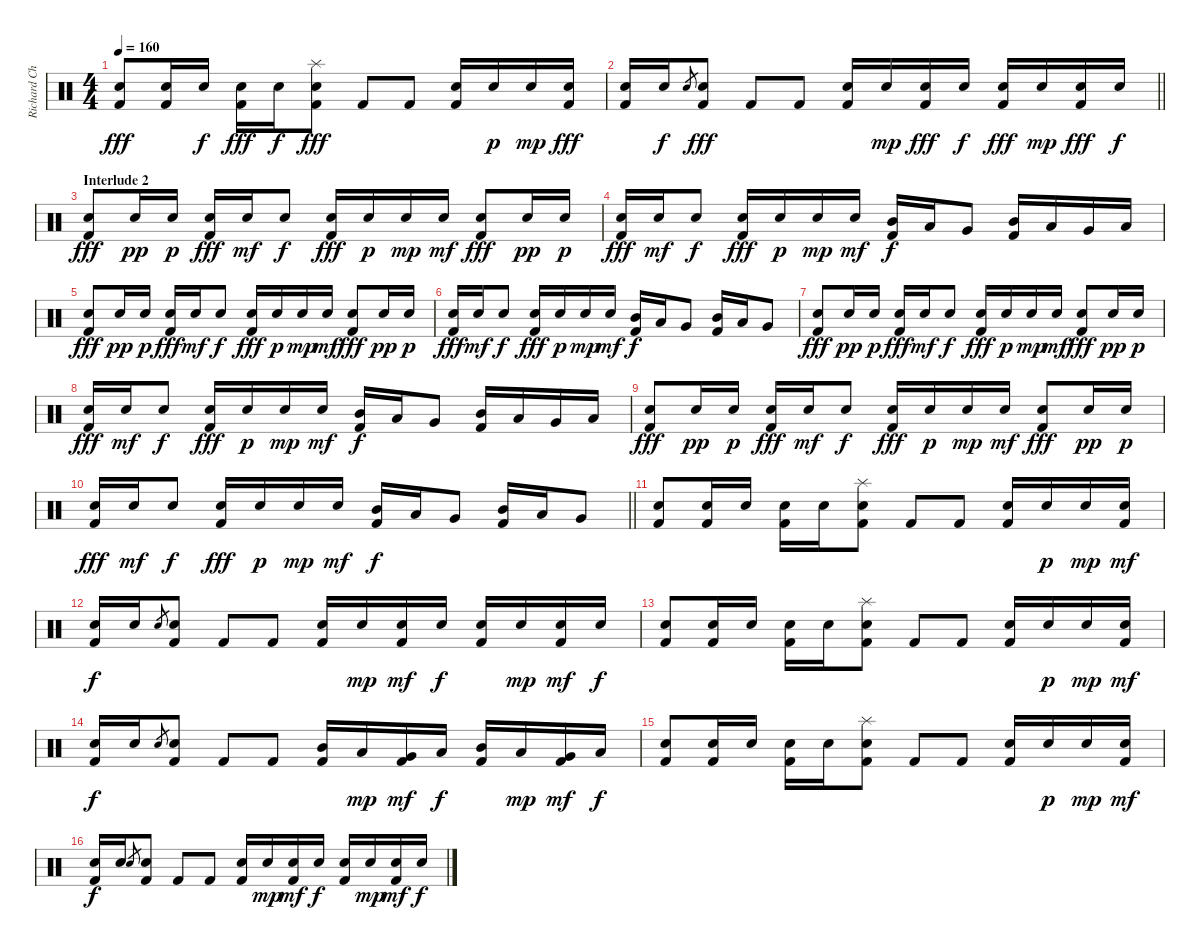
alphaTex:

\track ("Richard Christy" "Richard Ch") {instrument percussion}
\staff {score}
\articulation defaults
\ts (4 4)
\tempo 160
\clef neutral
\ks c
("Snare (hit) 2" "Kick (hit) 2").8{dy fff} ("Snare (hit) 2" "Kick (hit) 2").16 "Snare (hit) 2".16{dy f} ("Snare (hit) 2" "Kick (hit) 2").16{dy fff} "Snare (hit) 2".16{dy f} ("Splash (hit)" "Snare (hit) 2" "Kick (hit) 2").8{dy fff} "Kick (hit) 2".8 "Kick (hit) 2".8 ("Snare (hit) 2" "Kick (hit) 2").16 "Snare (hit) 2".16{dy p} "Snare (hit) 2".16{dy mp} ("Snare (hit) 2" "Kick (hit) 2").16{dy fff} |
\barLineRight lightlight
("Snare (hit) 2" "Kick (hit) 2").16 "Snare (hit) 2".16{dy f} "Snare (hit) 2".8{gr} ("Snare (hit) 2" "Kick (hit) 2").8{dy fff} "Kick (hit) 2".8 "Kick (hit) 2".8 ("Snare (hit) 2" "Kick (hit) 2").16 "Snare (hit) 2".16{dy mp} ("Snare (hit) 2" "Kick (hit) 2").16{dy fff} "Snare (hit) 2".16{dy f} ("Snare (hit) 2" "Kick (hit) 2").16{dy fff} "Snare (hit) 2".16{dy mp} ("Snare (hit) 2" "Kick (hit) 2").16{dy fff} "Snare (hit) 2".16{dy f} |
\section ("" "Interlude 2")
("Snare (hit) 2" "Kick (hit) 2").8{dy fff} "Snare (hit) 2".16{dy pp} "Snare (hit) 2".16{dy p} ("Snare (hit) 2" "Kick (hit) 2").16{dy fff} "Snare (hit) 2".16{dy mf} "Snare (hit) 2".8{dy f} ("Snare (hit) 2" "Kick (hit) 2").16{dy fff} "Snare (hit) 2".16{dy p} "Snare (hit) 2".16{dy mp} "Snare (hit) 2".16{dy mf} ("Snare (hit) 2" "Kick (hit) 2").8{dy fff} "Snare (hit) 2".16{dy pp} "Snare (hit) 2".16{dy p} |
("Snare (hit) 2" "Kick (hit) 2").16{dy fff} "Snare (hit) 2".16{dy mf} "Snare (hit) 2".8{dy f} ("Snare (hit) 2" "Kick (hit) 2").16{dy fff} "Snare (hit) 2".16{dy p} "Snare (hit) 2".16{dy mp} "Snare (hit) 2".16{dy mf} ("Mid Tom (hit)" "Kick (hit) 2").16{dy f} "Low Tom (hit)".16 "Very Low Tom (hit)".8 ("Mid Tom (hit)" "Kick (hit) 2").16 "Low Tom (hit)".16 "Very Low Tom (hit)".16 "Low Floor Tom (hit)".16 |
("Snare (hit) 2" "Kick (hit) 2").8{dy fff} "Snare (hit) 2".16{dy pp} "Snare (hit) 2".16{dy p} ("Snare (hit) 2" "Kick (hit) 2").16{dy fff} "Snare (hit) 2".16{dy mf} "Snare (hit) 2".8{dy f} ("Snare (hit) 2" "Kick (hit) 2").16{dy fff} "Snare (hit) 2".16{dy p} "Snare (hit) 2".16{dy mp} "Snare (hit) 2".16{dy mf} ("Snare (hit) 2" "Kick (hit) 2").8{dy fff} "Snare (hit) 2".16{dy pp} "Snare (hit) 2".16{dy p} |
("Snare (hit) 2" "Kick (hit) 2").16{dy fff} "Snare (hit) 2".16{dy mf} "Snare (hit) 2".8{dy f} ("Snare (hit) 2" "Kick (hit) 2").16{dy fff} "Snare (hit) 2".16{dy p} "Snare (hit) 2".16{dy mp} "Snare (hit) 2".16{dy mf} ("Mid Tom (hit)" "Kick (hit) 2").16{dy f} "Low Tom (hit)".16 "Very Low Tom (hit)".8 ("Mid Tom (hit)" "Kick (hit) 2").16 "Low Tom (hit)".16 "Very Low Tom (hit)".8 |
("Snare (hit) 2" "Kick (hit) 2").8{dy fff} "Snare (hit) 2".16{dy pp} "Snare (hit) 2".16{dy p} ("Snare (hit) 2" "Kick (hit) 2").16{dy fff} "Snare (hit) 2".16{dy mf} "Snare (hit) 2".8{dy f} ("Snare (hit) 2" "Kick (hit) 2").16{dy fff} "Snare (hit) 2".16{dy p} "Snare (hit) 2".16{dy mp} "Snare (hit) 2".16{dy mf} ("Snare (hit) 2" "Kick (hit) 2").8{dy fff} "Snare (hit) 2".16{dy pp} "Snare (hit) 2".16{dy p} |
("Snare (hit) 2" "Kick (hit) 2").16{dy fff} "Snare (hit) 2".16{dy mf} "Snare (hit) 2".8{dy f} ("Snare (hit) 2" "Kick (hit) 2").16{dy fff} "Snare (hit) 2".16{dy p} "Snare (hit) 2".16{dy mp} "Snare (hit) 2".16{dy mf} ("Mid Tom (hit)" "Kick (hit) 2").16{dy f} "Low Tom (hit)".16 "Very Low Tom (hit)".8 ("Mid Tom (hit)" "Kick (hit) 2").16 "Low Tom (hit)".16 "Very Low Tom (hit)".16 "Low Floor Tom (hit)".16 |
("Snare (hit) 2" "Kick (hit) 2").8{dy fff} "Snare (hit) 2".16{dy pp} "Snare (hit) 2".16{dy p} ("Snare (hit) 2" "Kick (hit) 2").16{dy fff} "Snare (hit) 2".16{dy mf} "Snare (hit) 2".8{dy f} ("Snare (hit) 2" "Kick (hit) 2").16{dy fff} "Snare (hit) 2".16{dy p} "Snare (hit) 2".16{dy mp} "Snare (hit) 2".16{dy mf} ("Snare (hit) 2" "Kick (hit) 2").8{dy fff} "Snare (hit) 2".16{dy pp} "Snare (hit) 2".16{dy p} |
\barLineRight lightlight
("Snare (hit) 2" "Kick (hit) 2").16{dy fff} "Snare (hit) 2".16{dy mf} "Snare (hit) 2".8{dy f} ("Snare (hit) 2" "Kick (hit) 2").16{dy fff} "Snare (hit) 2".16{dy p} "Snare (hit) 2".16{dy mp} "Snare (hit) 2".16{dy mf} ("Mid Tom (hit)" "Kick (hit) 2").16{dy f} "Low Tom (hit)".16 "Very Low Tom (hit)".8 ("Mid Tom (hit)" "Kick (hit) 2").16 "Low Tom (hit)".16 "Very Low Tom (hit)".8 |
("Snare (hit) 2" "Kick (hit) 2").8 ("Snare (hit) 2" "Kick (hit) 2").16 "Snare (hit) 2".16 ("Snare (hit) 2" "Kick (hit) 2").16 "Snare (hit) 2".16 ("Splash (hit)" "Snare (hit) 2" "Kick (hit) 2").8 "Kick (hit) 2".8 "Kick (hit) 2".8 ("Snare (hit) 2" "Kick (hit) 2").16 "Snare (hit) 2".16{dy p} "Snare (hit) 2".16{dy mp} ("Snare (hit) 2" "Kick (hit) 2").16{dy mf} |
("Snare (hit) 2" "Kick (hit) 2").16{dy f} "Snare (hit) 2".16 "Snare (hit) 2".8{gr} ("Snare (hit) 2" "Kick (hit) 2").8 "Kick (hit) 2".8 "Kick (hit) 2".8 ("Snare (hit) 2" "Kick (hit) 2").16 "Snare (hit) 2".16{dy mp} ("Snare (hit) 2" "Kick (hit) 2").16{dy mf} "Snare (hit) 2".16{dy f} ("Snare (hit) 2" "Kick (hit) 2").16 "Snare (hit) 2".16{dy mp} ("Snare (hit) 2" "Kick (hit) 2").16{dy mf} "Snare (hit) 2".16{dy f} |
("Snare (hit) 2" "Kick (hit) 2").8 ("Snare (hit) 2" "Kick (hit) 2").16 "Snare (hit) 2".16 ("Snare (hit) 2" "Kick (hit) 2").16 "Snare (hit) 2".16 ("Splash (hit)" "Snare (hit) 2" "Kick (hit) 2").8 "Kick (hit) 2".8 "Kick (hit) 2".8 ("Snare (hit) 2" "Kick (hit) 2").16 "Snare (hit) 2".16{dy p} "Snare (hit) 2".16{dy mp} ("Snare (hit) 2" "Kick (hit) 2").16{dy mf} |
("Snare (hit) 2" "Kick (hit) 2").16{dy f} "Snare (hit) 2".16 "Snare (hit) 2".8{gr} ("Snare (hit) 2" "Kick (hit) 2").8 "Kick (hit) 2".8 "Kick (hit) 2".8 ("Mid Tom (hit)" "Kick (hit) 2").16 "Low Tom (hit)".16{dy mp} ("Very Low Tom (hit)" "Kick (hit) 2").16{dy mf} "Low Floor Tom (hit)".16{dy f} ("Mid Tom (hit)" "Kick (hit) 2").16 "Low Tom (hit)".16{dy mp} ("Very Low Tom (hit)" "Kick (hit) 2").16{dy mf} "Low Floor Tom (hit)".16{dy f} |
("Snare (hit) 2" "Kick (hit) 2").8 ("Snare (hit) 2" "Kick (hit) 2").16 "Snare (hit) 2".16 ("Snare (hit) 2" "Kick (hit) 2").16 "Snare (hit) 2".16 ("Splash (hit)" "Snare (hit) 2" "Kick (hit) 2").8 "Kick (hit) 2".8 "Kick (hit) 2".8 ("Snare (hit) 2" "Kick (hit) 2").16 "Snare (hit) 2".16{dy p} "Snare (hit) 2".16{dy mp} ("Snare (hit) 2" "Kick (hit) 2").16{dy mf} |
("Snare (hit) 2" "Kick (hit) 2").16{dy f} "Snare (hit) 2".16 "Snare (hit) 2".8{gr} ("Snare (hit) 2" "Kick (hit) 2").8 "Kick (hit) 2".8 "Kick (hit) 2".8 ("Snare (hit) 2" "Kick (hit) 2").16 "Snare (hit) 2".16{dy mp} ("Snare (hit) 2" "Kick (hit) 2").16{dy mf} "Snare (hit) 2".16{dy f} ("Snare (hit) 2" "Kick (hit) 2").16 "Snare (hit) 2".16{dy mp} ("Snare (hit) 2" "Kick (hit) 2").16{dy mf} "Snare (hit) 2".16{dy f}
